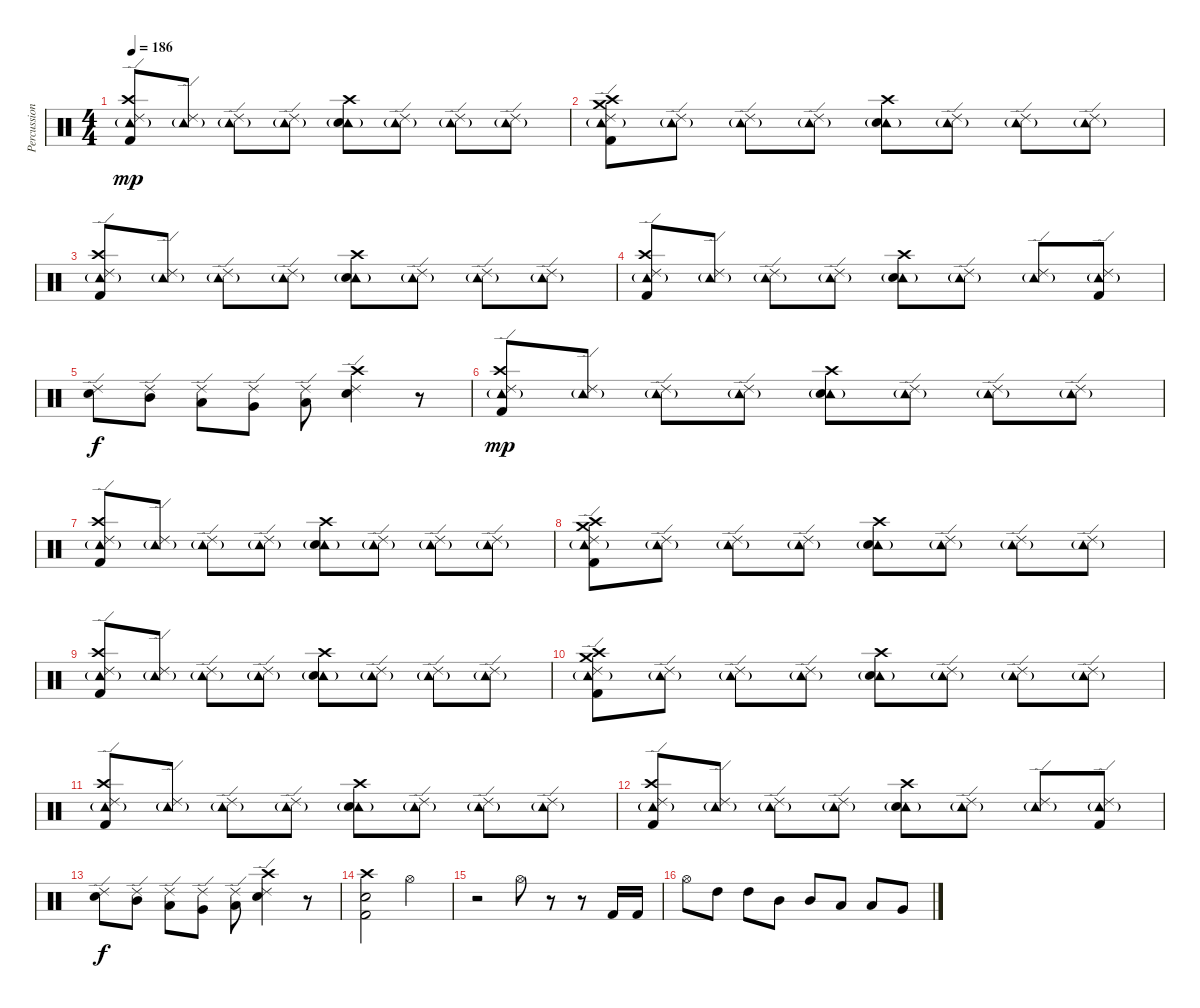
\track ("Percussion" "Percussion") {instrument percussion}
\staff {score}
\articulation defaults
\ts (4 4)
\tempo 186
\clef neutral
\ks c
("Ride (edge) 2" "Tambourine (hit)"{g} "Crash high (hit)" "Kick (hit) 2").8{dy mp} ("Ride (edge) 2" "Tambourine (hit)"{g}).8 ("Ride (edge) 2" "Tambourine (hit)"{g}).8 ("Ride (edge) 2" "Tambourine (hit)"{g}).8 ("Crash high (hit)" "Tambourine (hit)"{g} "Electric Snare (hit)").8 ("Ride (edge) 2" "Tambourine (hit)"{g}).8 ("Ride (edge) 2" "Tambourine (hit)"{g}).8 ("Ride (edge) 2" "Tambourine (hit)"{g}).8 |
("Ride (edge) 2" "Tambourine (hit)"{g} "Crash high (hit)" "Crash medium (hit)" "Kick (hit) 2").8 ("Ride (edge) 2" "Tambourine (hit)"{g}).8 ("Ride (edge) 2" "Tambourine (hit)"{g}).8 ("Ride (edge) 2" "Tambourine (hit)"{g}).8 ("Crash high (hit)" "Tambourine (hit)"{g} "Electric Snare (hit)").8 ("Ride (edge) 2" "Tambourine (hit)"{g}).8 ("Ride (edge) 2" "Tambourine (hit)"{g}).8 ("Ride (edge) 2" "Tambourine (hit)"{g}).8 |
("Ride (edge) 2" "Tambourine (hit)"{g} "Crash high (hit)" "Kick (hit) 2").8 ("Ride (edge) 2" "Tambourine (hit)"{g}).8 ("Ride (edge) 2" "Tambourine (hit)"{g}).8 ("Ride (edge) 2" "Tambourine (hit)"{g}).8 ("Crash high (hit)" "Tambourine (hit)"{g} "Electric Snare (hit)").8 ("Ride (edge) 2" "Tambourine (hit)"{g}).8 ("Ride (edge) 2" "Tambourine (hit)"{g}).8 ("Ride (edge) 2" "Tambourine (hit)"{g}).8 |
("Ride (edge) 2" "Tambourine (hit)"{g} "Crash high (hit)" "Kick (hit) 2").8 ("Ride (edge) 2" "Tambourine (hit)"{g}).8 ("Ride (edge) 2" "Tambourine (hit)"{g}).8 ("Ride (edge) 2" "Tambourine (hit)"{g}).8 ("Crash high (hit)" "Tambourine (hit)"{g} "Electric Snare (hit)").8 ("Ride (edge) 2" "Tambourine (hit)"{g}).8 ("Ride (edge) 2" "Tambourine (hit)"{g}).8 ("Ride (edge) 2" "Tambourine (hit)"{g} "Kick (hit) 2").8 |
("Ride (edge) 2" "Electric Snare (hit)").8{dy f} ("Ride (edge) 2" "Mid Tom (hit)").8 ("Ride (edge) 2" "Low Tom (hit)").8 ("Ride (edge) 2" "Very Low Tom (hit)").8 ("Ride (edge) 2" "Low Floor Tom (hit)").8 ("Ride (edge) 2" "Crash high (hit)" "Electric Snare (hit)").4 r.8 |
("Ride (edge) 2" "Tambourine (hit)"{g} "Crash high (hit)" "Kick (hit) 2").8{dy mp} ("Ride (edge) 2" "Tambourine (hit)"{g}).8 ("Ride (edge) 2" "Tambourine (hit)"{g}).8 ("Ride (edge) 2" "Tambourine (hit)"{g}).8 ("Crash high (hit)" "Tambourine (hit)"{g} "Electric Snare (hit)").8 ("Ride (edge) 2" "Tambourine (hit)"{g}).8 ("Ride (edge) 2" "Tambourine (hit)"{g}).8 ("Ride (edge) 2" "Tambourine (hit)"{g}).8 |
("Ride (edge) 2" "Tambourine (hit)"{g} "Crash high (hit)" "Kick (hit) 2").8 ("Ride (edge) 2" "Tambourine (hit)"{g}).8 ("Ride (edge) 2" "Tambourine (hit)"{g}).8 ("Ride (edge) 2" "Tambourine (hit)"{g}).8 ("Crash high (hit)" "Tambourine (hit)"{g} "Electric Snare (hit)").8 ("Ride (edge) 2" "Tambourine (hit)"{g}).8 ("Ride (edge) 2" "Tambourine (hit)"{g}).8 ("Ride (edge) 2" "Tambourine (hit)"{g}).8 |
("Ride (edge) 2" "Tambourine (hit)"{g} "Crash high (hit)" "Crash medium (hit)" "Kick (hit) 2").8 ("Ride (edge) 2" "Tambourine (hit)"{g}).8 ("Ride (edge) 2" "Tambourine (hit)"{g}).8 ("Ride (edge) 2" "Tambourine (hit)"{g}).8 ("Crash high (hit)" "Tambourine (hit)"{g} "Electric Snare (hit)").8 ("Ride (edge) 2" "Tambourine (hit)"{g}).8 ("Ride (edge) 2" "Tambourine (hit)"{g}).8 ("Ride (edge) 2" "Tambourine (hit)"{g}).8 |
("Ride (edge) 2" "Tambourine (hit)"{g} "Crash high (hit)" "Kick (hit) 2").8 ("Ride (edge) 2" "Tambourine (hit)"{g}).8 ("Ride (edge) 2" "Tambourine (hit)"{g}).8 ("Ride (edge) 2" "Tambourine (hit)"{g}).8 ("Crash high (hit)" "Tambourine (hit)"{g} "Electric Snare (hit)").8 ("Ride (edge) 2" "Tambourine (hit)"{g}).8 ("Ride (edge) 2" "Tambourine (hit)"{g}).8 ("Ride (edge) 2" "Tambourine (hit)"{g}).8 |
("Ride (edge) 2" "Tambourine (hit)"{g} "Crash high (hit)" "Crash medium (hit)" "Kick (hit) 2").8 ("Ride (edge) 2" "Tambourine (hit)"{g}).8 ("Ride (edge) 2" "Tambourine (hit)"{g}).8 ("Ride (edge) 2" "Tambourine (hit)"{g}).8 ("Crash high (hit)" "Tambourine (hit)"{g} "Electric Snare (hit)").8 ("Ride (edge) 2" "Tambourine (hit)"{g}).8 ("Ride (edge) 2" "Tambourine (hit)"{g}).8 ("Ride (edge) 2" "Tambourine (hit)"{g}).8 |
("Ride (edge) 2" "Tambourine (hit)"{g} "Crash high (hit)" "Kick (hit) 2").8 ("Ride (edge) 2" "Tambourine (hit)"{g}).8 ("Ride (edge) 2" "Tambourine (hit)"{g}).8 ("Ride (edge) 2" "Tambourine (hit)"{g}).8 ("Crash high (hit)" "Tambourine (hit)"{g} "Electric Snare (hit)").8 ("Ride (edge) 2" "Tambourine (hit)"{g}).8 ("Ride (edge) 2" "Tambourine (hit)"{g}).8 ("Ride (edge) 2" "Tambourine (hit)"{g}).8 |
("Ride (edge) 2" "Tambourine (hit)"{g} "Crash high (hit)" "Kick (hit) 2").8 ("Ride (edge) 2" "Tambourine (hit)"{g}).8 ("Ride (edge) 2" "Tambourine (hit)"{g}).8 ("Ride (edge) 2" "Tambourine (hit)"{g}).8 ("Crash high (hit)" "Tambourine (hit)"{g} "Electric Snare (hit)").8 ("Ride (edge) 2" "Tambourine (hit)"{g}).8 ("Ride (edge) 2" "Tambourine (hit)"{g}).8 ("Ride (edge) 2" "Tambourine (hit)"{g} "Kick (hit) 2").8 |
("Ride (edge) 2" "Electric Snare (hit)").8{dy f} ("Ride (edge) 2" "Mid Tom (hit)").8 ("Ride (edge) 2" "Low Tom (hit)").8 ("Ride (edge) 2" "Very Low Tom (hit)").8 ("Ride (edge) 2" "Low Floor Tom (hit)").8 ("Ride (edge) 2" "Crash high (hit)" "Electric Snare (hit)").4 r.8 |
("Crash high (hit)" "Electric Snare (hit)" "Kick (hit) 2").2 "Hi-Hat (open)".2 |
r.2 "Hi-Hat (open)".8 r.8 r.8 "Kick (hit) 2".16 "Kick (hit) 2".16 |
"Hi-Hat (open)".8 "High Tom (hit)".8 "High Tom (hit)".8 "Mid Tom (hit)".8 "Mid Tom (hit)".8 "Low Tom (hit)".8 "Low Tom (hit)".8 "Very Low Tom (hit)".8
